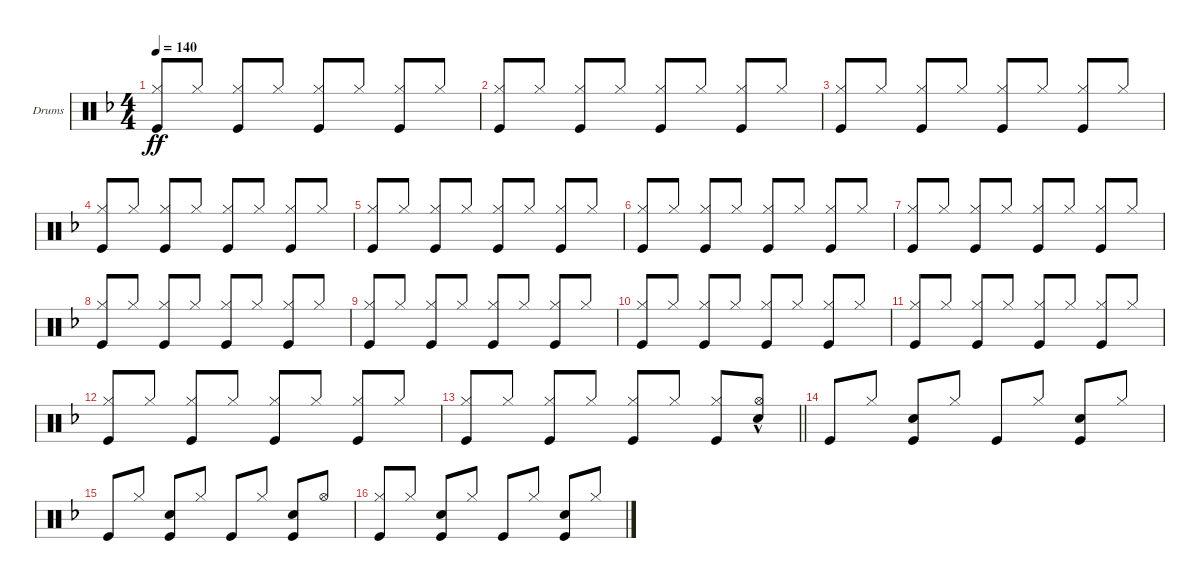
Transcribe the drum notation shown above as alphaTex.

\defaultSystemsLayout 4
\bracketExtendMode groupsimilarinstruments
\firstSystemTrackNameOrientation horizontal
\otherSystemsTrackNameOrientation horizontal
\track ("Drumkit" "Drums") {instrument percussion}
\staff {score}
\articulation defaults
\ts (4 4)
\tempo 140
\clef neutral
\ks f
("Hi-Hat (closed)" "Kick (hit)").8{dy ff beam invert} "Hi-Hat (closed)".8 ("Hi-Hat (closed)" "Kick (hit)").8{beam invert} "Hi-Hat (closed)".8 ("Hi-Hat (closed)" "Kick (hit)").8{beam invert} "Hi-Hat (closed)".8 ("Hi-Hat (closed)" "Kick (hit)").8{beam invert} "Hi-Hat (closed)".8 |
("Hi-Hat (closed)" "Kick (hit)").8{beam invert} "Hi-Hat (closed)".8 ("Hi-Hat (closed)" "Kick (hit)").8{beam invert} "Hi-Hat (closed)".8 ("Hi-Hat (closed)" "Kick (hit)").8{beam invert} "Hi-Hat (closed)".8 ("Hi-Hat (closed)" "Kick (hit)").8{beam invert} "Hi-Hat (closed)".8 |
("Hi-Hat (closed)" "Kick (hit)").8{beam invert} "Hi-Hat (closed)".8 ("Hi-Hat (closed)" "Kick (hit)").8{beam invert} "Hi-Hat (closed)".8 ("Hi-Hat (closed)" "Kick (hit)").8{beam invert} "Hi-Hat (closed)".8 ("Hi-Hat (closed)" "Kick (hit)").8{beam invert} "Hi-Hat (closed)".8 |
("Hi-Hat (closed)" "Kick (hit)").8{beam invert} "Hi-Hat (closed)".8 ("Hi-Hat (closed)" "Kick (hit)").8{beam invert} "Hi-Hat (closed)".8 ("Hi-Hat (closed)" "Kick (hit)").8{beam invert} "Hi-Hat (closed)".8 ("Hi-Hat (closed)" "Kick (hit)").8{beam invert} "Hi-Hat (closed)".8 |
("Hi-Hat (closed)" "Kick (hit)").8{beam invert} "Hi-Hat (closed)".8 ("Hi-Hat (closed)" "Kick (hit)").8{beam invert} "Hi-Hat (closed)".8 ("Hi-Hat (closed)" "Kick (hit)").8{beam invert} "Hi-Hat (closed)".8 ("Hi-Hat (closed)" "Kick (hit)").8{beam invert} "Hi-Hat (closed)".8 |
("Hi-Hat (closed)" "Kick (hit)").8{beam invert} "Hi-Hat (closed)".8 ("Hi-Hat (closed)" "Kick (hit)").8{beam invert} "Hi-Hat (closed)".8 ("Hi-Hat (closed)" "Kick (hit)").8{beam invert} "Hi-Hat (closed)".8 ("Hi-Hat (closed)" "Kick (hit)").8{beam invert} "Hi-Hat (closed)".8 |
("Hi-Hat (closed)" "Kick (hit)").8{beam invert} "Hi-Hat (closed)".8 ("Hi-Hat (closed)" "Kick (hit)").8{beam invert} "Hi-Hat (closed)".8 ("Hi-Hat (closed)" "Kick (hit)").8{beam invert} "Hi-Hat (closed)".8 ("Hi-Hat (closed)" "Kick (hit)").8{beam invert} "Hi-Hat (closed)".8 |
("Hi-Hat (closed)" "Kick (hit)").8{beam invert} "Hi-Hat (closed)".8 ("Hi-Hat (closed)" "Kick (hit)").8{beam invert} "Hi-Hat (closed)".8 ("Hi-Hat (closed)" "Kick (hit)").8{beam invert} "Hi-Hat (closed)".8 ("Hi-Hat (closed)" "Kick (hit)").8{beam invert} "Hi-Hat (closed)".8 |
("Hi-Hat (closed)" "Kick (hit)").8{beam invert} "Hi-Hat (closed)".8 ("Hi-Hat (closed)" "Kick (hit)").8{beam invert} "Hi-Hat (closed)".8 ("Hi-Hat (closed)" "Kick (hit)").8{beam invert} "Hi-Hat (closed)".8 ("Hi-Hat (closed)" "Kick (hit)").8{beam invert} "Hi-Hat (closed)".8 |
("Hi-Hat (closed)" "Kick (hit)").8{beam invert} "Hi-Hat (closed)".8 ("Hi-Hat (closed)" "Kick (hit)").8{beam invert} "Hi-Hat (closed)".8 ("Hi-Hat (closed)" "Kick (hit)").8{beam invert} "Hi-Hat (closed)".8 ("Hi-Hat (closed)" "Kick (hit)").8{beam invert} "Hi-Hat (closed)".8 |
("Hi-Hat (closed)" "Kick (hit)").8{beam invert} "Hi-Hat (closed)".8 ("Hi-Hat (closed)" "Kick (hit)").8{beam invert} "Hi-Hat (closed)".8 ("Hi-Hat (closed)" "Kick (hit)").8{beam invert} "Hi-Hat (closed)".8 ("Hi-Hat (closed)" "Kick (hit)").8{beam invert} "Hi-Hat (closed)".8 |
("Hi-Hat (closed)" "Kick (hit)").8{beam invert} "Hi-Hat (closed)".8 ("Hi-Hat (closed)" "Kick (hit)").8{beam invert} "Hi-Hat (closed)".8 ("Hi-Hat (closed)" "Kick (hit)").8{beam invert} "Hi-Hat (closed)".8 ("Hi-Hat (closed)" "Kick (hit)").8{beam invert} "Hi-Hat (closed)".8 |
\barLineRight lightlight
("Hi-Hat (closed)" "Kick (hit)").8{beam invert} "Hi-Hat (closed)".8 ("Hi-Hat (closed)" "Kick (hit)").8{beam invert} "Hi-Hat (closed)".8 ("Hi-Hat (closed)" "Kick (hit)").8{beam invert} "Hi-Hat (closed)".8 ("Hi-Hat (closed)" "Kick (hit)").8{beam invert} ("Hi-Hat (open)" "Snare (hit) 2"{hac}).8 |
"Kick (hit)".8{beam invert} "Hi-Hat (closed)".8 ("Snare (hit) 2" "Kick (hit)").8{beam invert} "Hi-Hat (closed)".8 "Kick (hit)".8{beam invert} "Hi-Hat (closed)".8 ("Snare (hit) 2" "Kick (hit)").8{beam invert} "Hi-Hat (closed)".8 |
"Kick (hit)".8{beam invert} "Hi-Hat (closed)".8 ("Snare (hit) 2" "Kick (hit)").8{beam invert} "Hi-Hat (closed)".8 "Kick (hit)".8{beam invert} "Hi-Hat (closed)".8 ("Snare (hit) 2" "Kick (hit)").8{beam invert} "Hi-Hat (open)".8 |
("Kick (hit)" "Hi-Hat (closed)").8{beam invert} "Hi-Hat (closed)".8 ("Snare (hit) 2" "Kick (hit)").8{beam invert} "Hi-Hat (closed)".8 "Kick (hit)".8{beam invert} "Hi-Hat (closed)".8 ("Snare (hit) 2" "Kick (hit)").8{beam invert} "Hi-Hat (closed)".8
